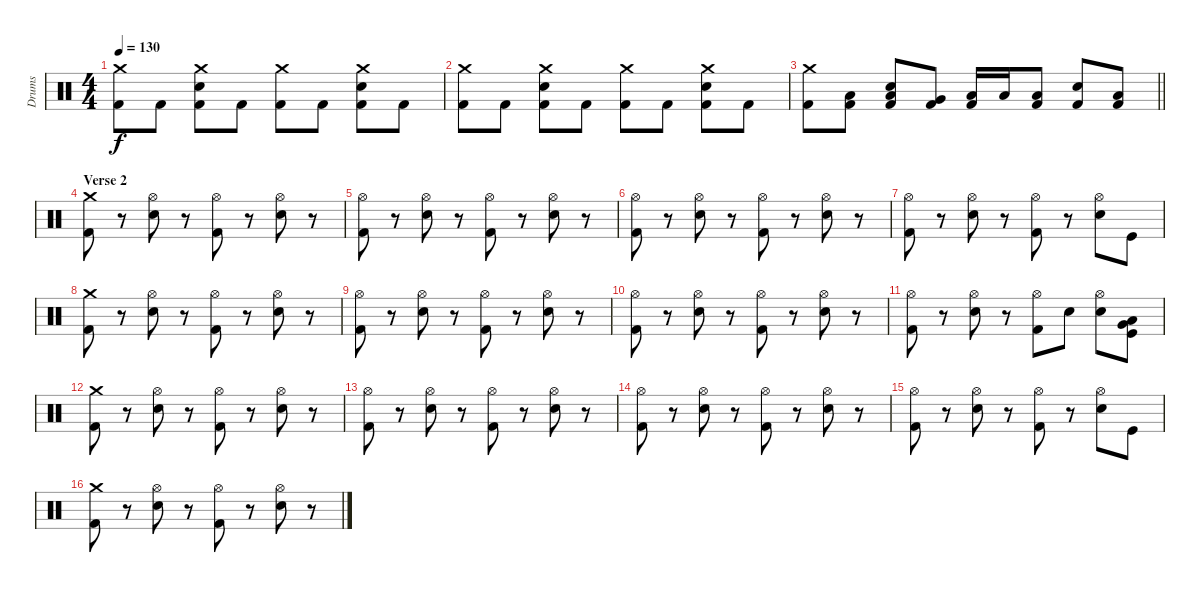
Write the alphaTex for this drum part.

\track ("Drums" "Drums") {instrument percussion}
\staff {score}
\articulation defaults
\ts (4 4)
\tempo 130
\clef neutral
\ks c
("Crash medium (hit)" "Kick (hit) 2").8{dy f} "Kick (hit) 2".8 ("Crash medium (hit)" "Snare (hit) 2" "Kick (hit) 2").8 "Kick (hit) 2".8 ("Crash medium (hit)" "Kick (hit) 2").8 "Kick (hit) 2".8 ("Crash medium (hit)" "Snare (hit) 2" "Kick (hit) 2").8 "Kick (hit) 2".8 |
("Crash medium (hit)" "Kick (hit) 2").8 "Kick (hit) 2".8 ("Crash medium (hit)" "Snare (hit) 2" "Kick (hit) 2").8 "Kick (hit) 2".8 ("Crash medium (hit)" "Kick (hit) 2").8 "Kick (hit) 2".8 ("Crash medium (hit)" "Snare (hit) 2" "Kick (hit) 2").8 "Kick (hit) 2".8 |
\barLineRight lightlight
("Crash medium (hit)" "Kick (hit) 2").8 ("Low Floor Tom (hit)" "Kick (hit) 2").8 ("Low Floor Tom (hit)" "Snare (hit) 2" "Kick (hit) 2").8 ("Very Low Tom (hit)" "Kick (hit) 2").8 ("Low Floor Tom (hit)" "Kick (hit) 2").16 "Low Floor Tom (hit)".16 ("Low Floor Tom (hit)" "Kick (hit) 2").8 ("Snare (hit) 2" "Kick (hit) 2").8 ("Low Tom (hit)" "Kick (hit) 2").8 |
\section ("" "Verse 2")
("Crash medium (hit)" "Kick (hit) 2").8 r.8 ("Hi-Hat (open)" "Snare (hit) 2").8 r.8 ("Hi-Hat (open)" "Kick (hit) 2").8 r.8 ("Hi-Hat (open)" "Snare (hit) 2").8 r.8 |
("Hi-Hat (open)" "Kick (hit) 2").8 r.8 ("Hi-Hat (open)" "Snare (hit) 2").8 r.8 ("Hi-Hat (open)" "Kick (hit) 2").8 r.8 ("Hi-Hat (open)" "Snare (hit) 2").8 r.8 |
("Hi-Hat (open)" "Kick (hit) 2").8 r.8 ("Hi-Hat (open)" "Snare (hit) 2").8 r.8 ("Hi-Hat (open)" "Kick (hit) 2").8 r.8 ("Hi-Hat (open)" "Snare (hit) 2").8 r.8 |
("Hi-Hat (open)" "Kick (hit) 2").8 r.8 ("Hi-Hat (open)" "Snare (hit) 2").8 r.8 ("Hi-Hat (open)" "Kick (hit) 2").8 r.8 ("Hi-Hat (open)" "Snare (hit) 2").8 "Kick (hit)".8 |
("Crash medium (hit)" "Kick (hit) 2").8 r.8 ("Hi-Hat (open)" "Snare (hit) 2").8 r.8 ("Hi-Hat (open)" "Kick (hit) 2").8 r.8 ("Hi-Hat (open)" "Snare (hit) 2").8 r.8 |
("Hi-Hat (open)" "Kick (hit) 2").8 r.8 ("Hi-Hat (open)" "Snare (hit) 2").8 r.8 ("Hi-Hat (open)" "Kick (hit) 2").8 r.8 ("Hi-Hat (open)" "Snare (hit) 2").8 r.8 |
("Hi-Hat (open)" "Kick (hit) 2").8 r.8 ("Hi-Hat (open)" "Snare (hit) 2").8 r.8 ("Hi-Hat (open)" "Kick (hit) 2").8 r.8 ("Hi-Hat (open)" "Snare (hit) 2").8 r.8 |
("Hi-Hat (open)" "Kick (hit) 2").8 r.8 ("Hi-Hat (open)" "Snare (hit) 2").8 r.8 ("Hi-Hat (open)" "Kick (hit) 2").8 "Snare (hit) 2".8 ("Hi-Hat (open)" "Snare (hit) 2").8 ("Low Tom (hit)" "Very Low Tom (hit)" "Kick (hit)").8 |
("Crash medium (hit)" "Kick (hit) 2").8 r.8 ("Hi-Hat (open)" "Snare (hit) 2").8 r.8 ("Hi-Hat (open)" "Kick (hit) 2").8 r.8 ("Hi-Hat (open)" "Snare (hit) 2").8 r.8 |
("Hi-Hat (open)" "Kick (hit) 2").8 r.8 ("Hi-Hat (open)" "Snare (hit) 2").8 r.8 ("Hi-Hat (open)" "Kick (hit) 2").8 r.8 ("Hi-Hat (open)" "Snare (hit) 2").8 r.8 |
("Hi-Hat (open)" "Kick (hit) 2").8 r.8 ("Hi-Hat (open)" "Snare (hit) 2").8 r.8 ("Hi-Hat (open)" "Kick (hit) 2").8 r.8 ("Hi-Hat (open)" "Snare (hit) 2").8 r.8 |
("Hi-Hat (open)" "Kick (hit) 2").8 r.8 ("Hi-Hat (open)" "Snare (hit) 2").8 r.8 ("Hi-Hat (open)" "Kick (hit) 2").8 r.8 ("Hi-Hat (open)" "Snare (hit) 2").8 "Kick (hit)".8 |
("Crash medium (hit)" "Kick (hit) 2").8 r.8 ("Hi-Hat (open)" "Snare (hit) 2").8 r.8 ("Hi-Hat (open)" "Kick (hit) 2").8 r.8 ("Hi-Hat (open)" "Snare (hit) 2").8 r.8
